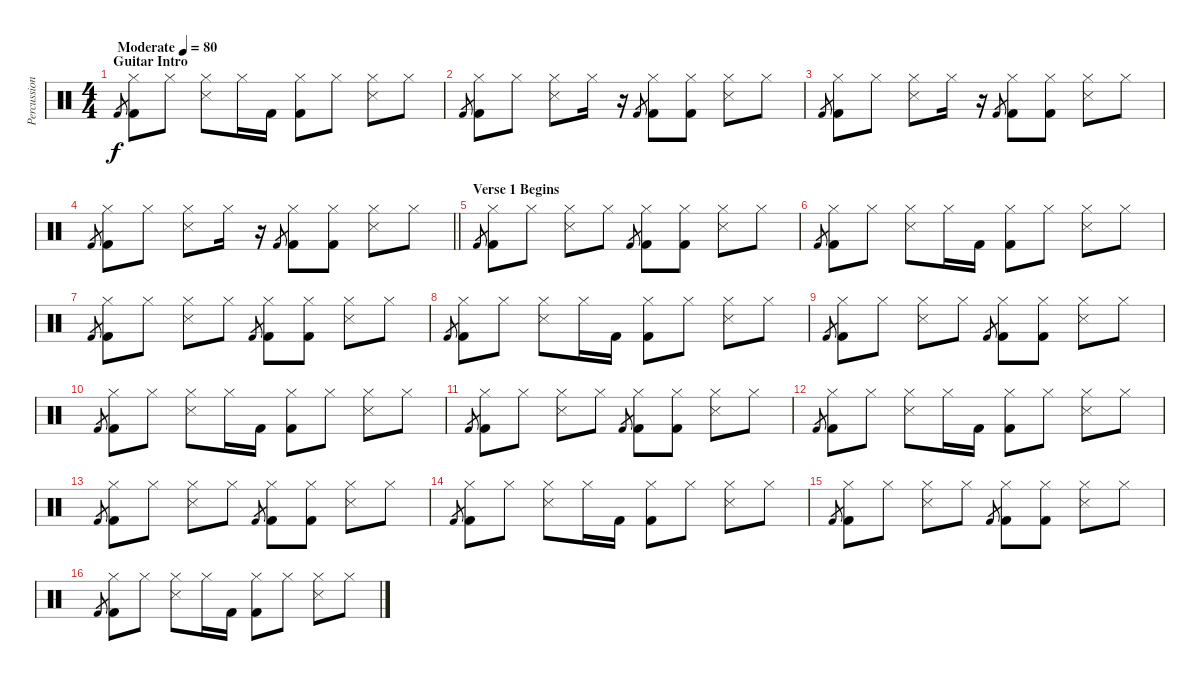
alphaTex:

\track ("Percussion" "Percussion") {instrument percussion}
\staff {score}
\articulation defaults
\ts (4 4)
\section ("" "Guitar Intro")
\tempo (80 "Moderate")
\clef neutral
\ks c "Kick (hit) 2".8{gr dy f}
("Hi-Hat (closed)" "Kick (hit) 2").8 "Hi-Hat (closed)".8 ("Hi-Hat (closed)" "Snare (side stick) 3").8 "Hi-Hat (closed)".16 "Kick (hit) 2".16 ("Hi-Hat (closed)" "Kick (hit) 2").8 "Hi-Hat (closed)".8 ("Hi-Hat (closed)" "Snare (side stick) 3").8 "Hi-Hat (closed)".8 |
"Kick (hit) 2".8{gr} ("Hi-Hat (closed)" "Kick (hit) 2").8 "Hi-Hat (closed)".8 ("Hi-Hat (closed)" "Snare (side stick) 3").8 "Hi-Hat (closed)".16 r.16 "Kick (hit) 2".8{gr} ("Hi-Hat (closed)" "Kick (hit) 2").8 ("Hi-Hat (closed)" "Kick (hit) 2").8 ("Hi-Hat (closed)" "Snare (side stick) 3").8 "Hi-Hat (closed)".8 |
"Kick (hit) 2".8{gr} ("Hi-Hat (closed)" "Kick (hit) 2").8 "Hi-Hat (closed)".8 ("Hi-Hat (closed)" "Snare (side stick) 3").8 "Hi-Hat (closed)".16 r.16 "Kick (hit) 2".8{gr} ("Hi-Hat (closed)" "Kick (hit) 2").8 ("Hi-Hat (closed)" "Kick (hit) 2").8 ("Hi-Hat (closed)" "Snare (side stick) 3").8 "Hi-Hat (closed)".8 |
\barLineRight lightlight "Kick (hit) 2".8{gr}
("Hi-Hat (closed)" "Kick (hit) 2").8 "Hi-Hat (closed)".8 ("Hi-Hat (closed)" "Snare (side stick) 3").8 "Hi-Hat (closed)".16 r.16 "Kick (hit) 2".8{gr} ("Hi-Hat (closed)" "Kick (hit) 2").8 ("Hi-Hat (closed)" "Kick (hit) 2").8 ("Hi-Hat (closed)" "Snare (side stick) 3").8 "Hi-Hat (closed)".8 |
\section ("" "Verse 1 Begins")
"Kick (hit) 2".8{gr} ("Hi-Hat (closed)" "Kick (hit) 2").8 "Hi-Hat (closed)".8 ("Hi-Hat (closed)" "Snare (side stick) 3").8 "Hi-Hat (closed)".8 "Kick (hit) 2".8{gr} ("Hi-Hat (closed)" "Kick (hit) 2").8 ("Hi-Hat (closed)" "Kick (hit) 2").8 ("Hi-Hat (closed)" "Snare (side stick) 3").8 "Hi-Hat (closed)".8 |
"Kick (hit) 2".8{gr} ("Hi-Hat (closed)" "Kick (hit) 2").8 "Hi-Hat (closed)".8 ("Hi-Hat (closed)" "Snare (side stick) 3").8 "Hi-Hat (closed)".16 "Kick (hit) 2".16 ("Hi-Hat (closed)" "Kick (hit) 2").8 "Hi-Hat (closed)".8 ("Hi-Hat (closed)" "Snare (side stick) 3").8 "Hi-Hat (closed)".8 |
"Kick (hit) 2".8{gr} ("Hi-Hat (closed)" "Kick (hit) 2").8 "Hi-Hat (closed)".8 ("Hi-Hat (closed)" "Snare (side stick) 3").8 "Hi-Hat (closed)".8 "Kick (hit) 2".8{gr} ("Hi-Hat (closed)" "Kick (hit) 2").8 ("Hi-Hat (closed)" "Kick (hit) 2").8 ("Hi-Hat (closed)" "Snare (side stick) 3").8 "Hi-Hat (closed)".8 |
"Kick (hit) 2".8{gr} ("Hi-Hat (closed)" "Kick (hit) 2").8 "Hi-Hat (closed)".8 ("Hi-Hat (closed)" "Snare (side stick) 3").8 "Hi-Hat (closed)".16 "Kick (hit) 2".16 ("Hi-Hat (closed)" "Kick (hit) 2").8 "Hi-Hat (closed)".8 ("Hi-Hat (closed)" "Snare (side stick) 3").8 "Hi-Hat (closed)".8 |
"Kick (hit) 2".8{gr} ("Hi-Hat (closed)" "Kick (hit) 2").8 "Hi-Hat (closed)".8 ("Hi-Hat (closed)" "Snare (side stick) 3").8 "Hi-Hat (closed)".8 "Kick (hit) 2".8{gr} ("Hi-Hat (closed)" "Kick (hit) 2").8 ("Hi-Hat (closed)" "Kick (hit) 2").8 ("Hi-Hat (closed)" "Snare (side stick) 3").8 "Hi-Hat (closed)".8 |
"Kick (hit) 2".8{gr} ("Hi-Hat (closed)" "Kick (hit) 2").8 "Hi-Hat (closed)".8 ("Hi-Hat (closed)" "Snare (side stick) 3").8 "Hi-Hat (closed)".16 "Kick (hit) 2".16 ("Hi-Hat (closed)" "Kick (hit) 2").8 "Hi-Hat (closed)".8 ("Hi-Hat (closed)" "Snare (side stick) 3").8 "Hi-Hat (closed)".8 |
"Kick (hit) 2".8{gr} ("Hi-Hat (closed)" "Kick (hit) 2").8 "Hi-Hat (closed)".8 ("Hi-Hat (closed)" "Snare (side stick) 3").8 "Hi-Hat (closed)".8 "Kick (hit) 2".8{gr} ("Hi-Hat (closed)" "Kick (hit) 2").8 ("Hi-Hat (closed)" "Kick (hit) 2").8 ("Hi-Hat (closed)" "Snare (side stick) 3").8 "Hi-Hat (closed)".8 |
"Kick (hit) 2".8{gr} ("Hi-Hat (closed)" "Kick (hit) 2").8 "Hi-Hat (closed)".8 ("Hi-Hat (closed)" "Snare (side stick) 3").8 "Hi-Hat (closed)".16 "Kick (hit) 2".16 ("Hi-Hat (closed)" "Kick (hit) 2").8 "Hi-Hat (closed)".8 ("Hi-Hat (closed)" "Snare (side stick) 3").8 "Hi-Hat (closed)".8 |
"Kick (hit) 2".8{gr} ("Hi-Hat (closed)" "Kick (hit) 2").8 "Hi-Hat (closed)".8 ("Hi-Hat (closed)" "Snare (side stick) 3").8 "Hi-Hat (closed)".8 "Kick (hit) 2".8{gr} ("Hi-Hat (closed)" "Kick (hit) 2").8 ("Hi-Hat (closed)" "Kick (hit) 2").8 ("Hi-Hat (closed)" "Snare (side stick) 3").8 "Hi-Hat (closed)".8 |
"Kick (hit) 2".8{gr} ("Hi-Hat (closed)" "Kick (hit) 2").8 "Hi-Hat (closed)".8 ("Hi-Hat (closed)" "Snare (side stick) 3").8 "Hi-Hat (closed)".16 "Kick (hit) 2".16 ("Hi-Hat (closed)" "Kick (hit) 2").8 "Hi-Hat (closed)".8 ("Hi-Hat (closed)" "Snare (side stick) 3").8 "Hi-Hat (closed)".8 |
"Kick (hit) 2".8{gr} ("Hi-Hat (closed)" "Kick (hit) 2").8 "Hi-Hat (closed)".8 ("Hi-Hat (closed)" "Snare (side stick) 3").8 "Hi-Hat (closed)".8 "Kick (hit) 2".8{gr} ("Hi-Hat (closed)" "Kick (hit) 2").8 ("Hi-Hat (closed)" "Kick (hit) 2").8 ("Hi-Hat (closed)" "Snare (side stick) 3").8 "Hi-Hat (closed)".8 |
"Kick (hit) 2".8{gr} ("Hi-Hat (closed)" "Kick (hit) 2").8 "Hi-Hat (closed)".8 ("Hi-Hat (closed)" "Snare (side stick) 3").8 "Hi-Hat (closed)".16 "Kick (hit) 2".16 ("Hi-Hat (closed)" "Kick (hit) 2").8 "Hi-Hat (closed)".8 ("Hi-Hat (closed)" "Snare (side stick) 3").8 "Hi-Hat (closed)".8
